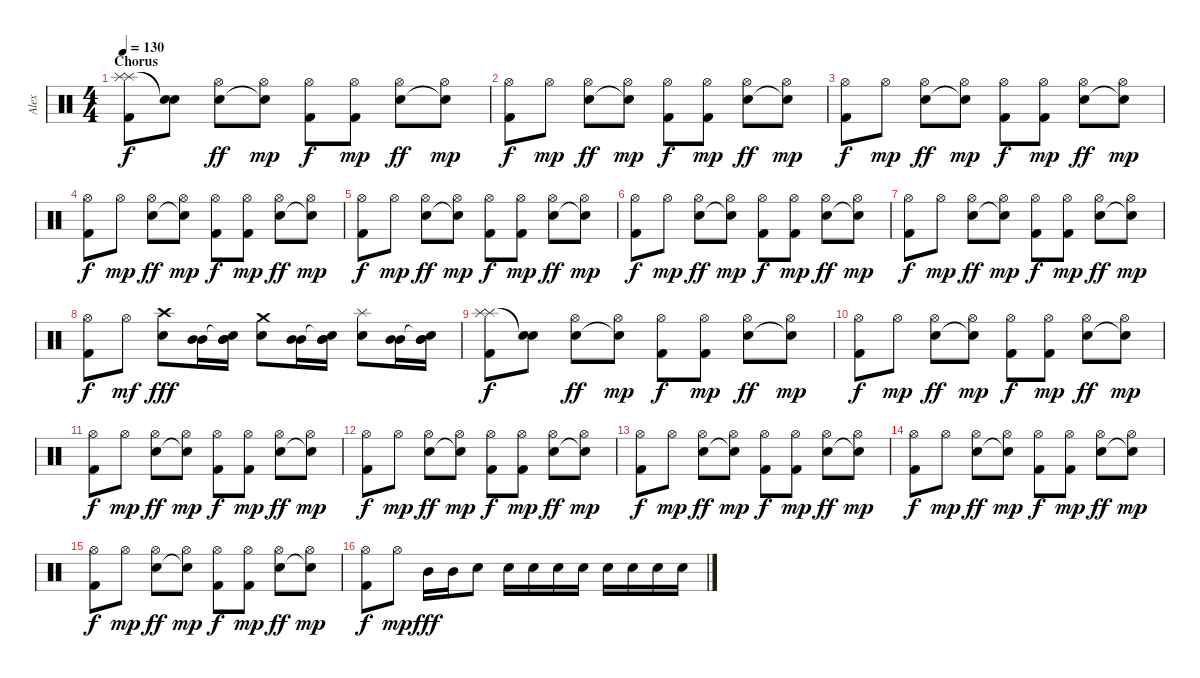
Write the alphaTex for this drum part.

\track ("Alex" "Alex") {instrument percussion}
\staff {score}
\articulation defaults
\ts (4 4)
\section ("" "Chorus")
\tempo 130
\clef neutral
\ks c
("Splash (hit)" "Splash (hit)" "Kick (hit) 2").8{dy f} ("Snare (hit)"{t} "Snare (hit)"{t}).8 ("Hi-Hat (open)" "Electric Snare (hit)").8{dy ff} ("Hi-Hat (open)" "Snare (hit)"{t}).8{dy mp} ("Hi-Hat (open)" "Kick (hit) 2").8{dy f} ("Hi-Hat (open)" "Kick (hit) 2").8{dy mp} ("Hi-Hat (open)" "Electric Snare (hit)").8{dy ff} ("Hi-Hat (open)" "Snare (hit)"{t}).8{dy mp} |
("Hi-Hat (open)" "Kick (hit) 2").8{dy f} "Hi-Hat (open)".8{dy mp} ("Hi-Hat (open)" "Electric Snare (hit)").8{dy ff} ("Hi-Hat (open)" "Snare (hit)"{t}).8{dy mp} ("Hi-Hat (open)" "Kick (hit) 2").8{dy f} ("Hi-Hat (open)" "Kick (hit) 2").8{dy mp} ("Hi-Hat (open)" "Electric Snare (hit)").8{dy ff} ("Hi-Hat (open)" "Snare (hit)"{t}).8{dy mp} |
("Hi-Hat (open)" "Kick (hit) 2").8{dy f} "Hi-Hat (open)".8{dy mp} ("Hi-Hat (open)" "Electric Snare (hit)").8{dy ff} ("Hi-Hat (open)" "Snare (hit)"{t}).8{dy mp} ("Hi-Hat (open)" "Kick (hit) 2").8{dy f} ("Hi-Hat (open)" "Kick (hit) 2").8{dy mp} ("Hi-Hat (open)" "Electric Snare (hit)").8{dy ff} ("Hi-Hat (open)" "Snare (hit)"{t}).8{dy mp} |
("Hi-Hat (open)" "Kick (hit) 2").8{dy f} "Hi-Hat (open)".8{dy mp} ("Hi-Hat (open)" "Electric Snare (hit)").8{dy ff} ("Hi-Hat (open)" "Snare (hit)"{t}).8{dy mp} ("Hi-Hat (open)" "Kick (hit) 2").8{dy f} ("Hi-Hat (open)" "Kick (hit) 2").8{dy mp} ("Hi-Hat (open)" "Electric Snare (hit)").8{dy ff} ("Hi-Hat (open)" "Snare (hit)"{t}).8{dy mp} |
("Hi-Hat (open)" "Kick (hit) 2").8{dy f} "Hi-Hat (open)".8{dy mp} ("Hi-Hat (open)" "Electric Snare (hit)").8{dy ff} ("Hi-Hat (open)" "Snare (hit)"{t}).8{dy mp} ("Hi-Hat (open)" "Kick (hit) 2").8{dy f} ("Hi-Hat (open)" "Kick (hit) 2").8{dy mp} ("Hi-Hat (open)" "Electric Snare (hit)").8{dy ff} ("Hi-Hat (open)" "Snare (hit)"{t}).8{dy mp} |
("Hi-Hat (open)" "Kick (hit) 2").8{dy f} "Hi-Hat (open)".8{dy mp} ("Hi-Hat (open)" "Electric Snare (hit)").8{dy ff} ("Hi-Hat (open)" "Snare (hit)"{t}).8{dy mp} ("Hi-Hat (open)" "Kick (hit) 2").8{dy f} ("Hi-Hat (open)" "Kick (hit) 2").8{dy mp} ("Hi-Hat (open)" "Electric Snare (hit)").8{dy ff} ("Hi-Hat (open)" "Snare (hit)"{t}).8{dy mp} |
("Hi-Hat (open)" "Kick (hit) 2").8{dy f} "Hi-Hat (open)".8{dy mp} ("Hi-Hat (open)" "Electric Snare (hit)").8{dy ff} ("Hi-Hat (open)" "Snare (hit)"{t}).8{dy mp} ("Hi-Hat (open)" "Kick (hit) 2").8{dy f} ("Hi-Hat (open)" "Kick (hit) 2").8{dy mp} ("Hi-Hat (open)" "Electric Snare (hit)").8{dy ff} ("Hi-Hat (open)" "Snare (hit)"{t}).8{dy mp} |
("Hi-Hat (open)" "Kick (hit) 2").8{dy f} "Hi-Hat (open)".8{dy mf} ("Crash high (hit)" "Electric Snare (hit)").8{dy fff} ("Mid Tom (hit)" "Mid Tom (hit)").16 ("Snare (hit)"{t} "Mid Tom (hit)" "Mid Tom (hit)").16 ("Crash medium (hit)" "Electric Snare (hit)").8 ("Mid Tom (hit)" "Mid Tom (hit)").16 ("Snare (hit)"{t} "Mid Tom (hit)" "Mid Tom (hit)").16 ("Splash (hit)" "Electric Snare (hit)").8 ("Mid Tom (hit)" "Mid Tom (hit)").16 ("Snare (hit)"{t} "Mid Tom (hit)" "Mid Tom (hit)").16 |
("Splash (hit)" "Splash (hit)" "Kick (hit) 2").8{dy f} ("Snare (hit)"{t} "Snare (hit)"{t}).8 ("Hi-Hat (open)" "Electric Snare (hit)").8{dy ff} ("Hi-Hat (open)" "Snare (hit)"{t}).8{dy mp} ("Hi-Hat (open)" "Kick (hit) 2").8{dy f} ("Hi-Hat (open)" "Kick (hit) 2").8{dy mp} ("Hi-Hat (open)" "Electric Snare (hit)").8{dy ff} ("Hi-Hat (open)" "Snare (hit)"{t}).8{dy mp} |
("Hi-Hat (open)" "Kick (hit) 2").8{dy f} "Hi-Hat (open)".8{dy mp} ("Hi-Hat (open)" "Electric Snare (hit)").8{dy ff} ("Hi-Hat (open)" "Snare (hit)"{t}).8{dy mp} ("Hi-Hat (open)" "Kick (hit) 2").8{dy f} ("Hi-Hat (open)" "Kick (hit) 2").8{dy mp} ("Hi-Hat (open)" "Electric Snare (hit)").8{dy ff} ("Hi-Hat (open)" "Snare (hit)"{t}).8{dy mp} |
("Hi-Hat (open)" "Kick (hit) 2").8{dy f} "Hi-Hat (open)".8{dy mp} ("Hi-Hat (open)" "Electric Snare (hit)").8{dy ff} ("Hi-Hat (open)" "Snare (hit)"{t}).8{dy mp} ("Hi-Hat (open)" "Kick (hit) 2").8{dy f} ("Hi-Hat (open)" "Kick (hit) 2").8{dy mp} ("Hi-Hat (open)" "Electric Snare (hit)").8{dy ff} ("Hi-Hat (open)" "Snare (hit)"{t}).8{dy mp} |
("Hi-Hat (open)" "Kick (hit) 2").8{dy f} "Hi-Hat (open)".8{dy mp} ("Hi-Hat (open)" "Electric Snare (hit)").8{dy ff} ("Hi-Hat (open)" "Snare (hit)"{t}).8{dy mp} ("Hi-Hat (open)" "Kick (hit) 2").8{dy f} ("Hi-Hat (open)" "Kick (hit) 2").8{dy mp} ("Hi-Hat (open)" "Electric Snare (hit)").8{dy ff} ("Hi-Hat (open)" "Snare (hit)"{t}).8{dy mp} |
("Hi-Hat (open)" "Kick (hit) 2").8{dy f} "Hi-Hat (open)".8{dy mp} ("Hi-Hat (open)" "Electric Snare (hit)").8{dy ff} ("Hi-Hat (open)" "Snare (hit)"{t}).8{dy mp} ("Hi-Hat (open)" "Kick (hit) 2").8{dy f} ("Hi-Hat (open)" "Kick (hit) 2").8{dy mp} ("Hi-Hat (open)" "Electric Snare (hit)").8{dy ff} ("Hi-Hat (open)" "Snare (hit)"{t}).8{dy mp} |
("Hi-Hat (open)" "Kick (hit) 2").8{dy f} "Hi-Hat (open)".8{dy mp} ("Hi-Hat (open)" "Electric Snare (hit)").8{dy ff} ("Hi-Hat (open)" "Snare (hit)"{t}).8{dy mp} ("Hi-Hat (open)" "Kick (hit) 2").8{dy f} ("Hi-Hat (open)" "Kick (hit) 2").8{dy mp} ("Hi-Hat (open)" "Electric Snare (hit)").8{dy ff} ("Hi-Hat (open)" "Snare (hit)"{t}).8{dy mp} |
("Hi-Hat (open)" "Kick (hit) 2").8{dy f} "Hi-Hat (open)".8{dy mp} ("Hi-Hat (open)" "Electric Snare (hit)").8{dy ff} ("Hi-Hat (open)" "Snare (hit)"{t}).8{dy mp} ("Hi-Hat (open)" "Kick (hit) 2").8{dy f} ("Hi-Hat (open)" "Kick (hit) 2").8{dy mp} ("Hi-Hat (open)" "Electric Snare (hit)").8{dy ff} ("Hi-Hat (open)" "Snare (hit)"{t}).8{dy mp} |
("Hi-Hat (open)" "Kick (hit) 2").8{dy f} "Hi-Hat (open)".8{dy mp} "Mid Tom (hit)".16{dy fff} "Mid Tom (hit)".16 "Electric Snare (hit)".8 "Electric Snare (hit)".16 "Electric Snare (hit)".16 "Electric Snare (hit)".16 "Electric Snare (hit)".16 "Electric Snare (hit)".16 "Electric Snare (hit)".16 "Electric Snare (hit)".16 "Electric Snare (hit)".16
